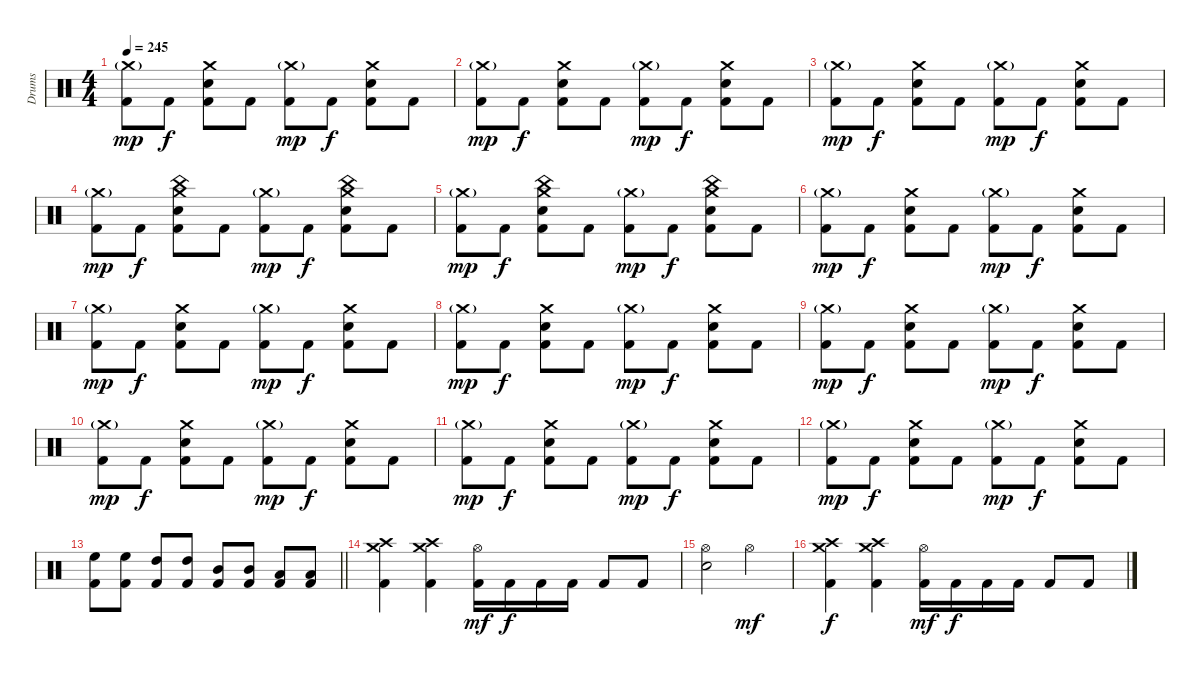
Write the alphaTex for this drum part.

\track ("Drums" "Drums") {instrument percussion}
\staff {score}
\articulation defaults
\ts (4 4)
\tempo 245
\clef neutral
\ks c
("Crash medium (hit)"{g} "Kick (hit) 2").8{dy mp} "Kick (hit) 2".8{dy f} ("Crash medium (hit)" "Electric Snare (hit)" "Kick (hit) 2").8 "Kick (hit) 2".8 ("Crash medium (hit)"{g} "Kick (hit) 2").8{dy mp} "Kick (hit) 2".8{dy f} ("Crash medium (hit)" "Electric Snare (hit)" "Kick (hit) 2").8 "Kick (hit) 2".8 |
("Crash medium (hit)"{g} "Kick (hit) 2").8{dy mp} "Kick (hit) 2".8{dy f} ("Crash medium (hit)" "Electric Snare (hit)" "Kick (hit) 2").8 "Kick (hit) 2".8 ("Crash medium (hit)"{g} "Kick (hit) 2").8{dy mp} "Kick (hit) 2".8{dy f} ("Crash medium (hit)" "Electric Snare (hit)" "Kick (hit) 2").8 "Kick (hit) 2".8 |
("Crash medium (hit)"{g} "Kick (hit) 2").8{dy mp} "Kick (hit) 2".8{dy f} ("Crash medium (hit)" "Electric Snare (hit)" "Kick (hit) 2").8 "Kick (hit) 2".8 ("Crash medium (hit)"{g} "Kick (hit) 2").8{dy mp} "Kick (hit) 2".8{dy f} ("Crash medium (hit)" "Electric Snare (hit)" "Kick (hit) 2").8 "Kick (hit) 2".8 |
("Crash medium (hit)"{g} "Kick (hit) 2").8{dy mp} "Kick (hit) 2".8{dy f} ("Crash medium (hit)" "China (hit)" "Electric Snare (hit)" "Kick (hit) 2").8 "Kick (hit) 2".8 ("Crash medium (hit)"{g} "Kick (hit) 2").8{dy mp} "Kick (hit) 2".8{dy f} ("Crash medium (hit)" "China (hit)" "Electric Snare (hit)" "Kick (hit) 2").8 "Kick (hit) 2".8 |
("Crash medium (hit)"{g} "Kick (hit) 2").8{dy mp} "Kick (hit) 2".8{dy f} ("Crash medium (hit)" "China (hit)" "Electric Snare (hit)" "Kick (hit) 2").8 "Kick (hit) 2".8 ("Crash medium (hit)"{g} "Kick (hit) 2").8{dy mp} "Kick (hit) 2".8{dy f} ("Crash medium (hit)" "China (hit)" "Electric Snare (hit)" "Kick (hit) 2").8 "Kick (hit) 2".8 |
("Crash medium (hit)"{g} "Kick (hit) 2").8{dy mp} "Kick (hit) 2".8{dy f} ("Crash medium (hit)" "Electric Snare (hit)" "Kick (hit) 2").8 "Kick (hit) 2".8 ("Crash medium (hit)"{g} "Kick (hit) 2").8{dy mp} "Kick (hit) 2".8{dy f} ("Crash medium (hit)" "Electric Snare (hit)" "Kick (hit) 2").8 "Kick (hit) 2".8 |
("Crash medium (hit)"{g} "Kick (hit) 2").8{dy mp} "Kick (hit) 2".8{dy f} ("Crash medium (hit)" "Electric Snare (hit)" "Kick (hit) 2").8 "Kick (hit) 2".8 ("Crash medium (hit)"{g} "Kick (hit) 2").8{dy mp} "Kick (hit) 2".8{dy f} ("Crash medium (hit)" "Electric Snare (hit)" "Kick (hit) 2").8 "Kick (hit) 2".8 |
("Crash medium (hit)"{g} "Kick (hit) 2").8{dy mp} "Kick (hit) 2".8{dy f} ("Crash medium (hit)" "Electric Snare (hit)" "Kick (hit) 2").8 "Kick (hit) 2".8 ("Crash medium (hit)"{g} "Kick (hit) 2").8{dy mp} "Kick (hit) 2".8{dy f} ("Crash medium (hit)" "Electric Snare (hit)" "Kick (hit) 2").8 "Kick (hit) 2".8 |
("Crash medium (hit)"{g} "Kick (hit) 2").8{dy mp} "Kick (hit) 2".8{dy f} ("Crash medium (hit)" "Electric Snare (hit)" "Kick (hit) 2").8 "Kick (hit) 2".8 ("Crash medium (hit)"{g} "Kick (hit) 2").8{dy mp} "Kick (hit) 2".8{dy f} ("Crash medium (hit)" "Electric Snare (hit)" "Kick (hit) 2").8 "Kick (hit) 2".8 |
("Crash medium (hit)"{g} "Kick (hit) 2").8{dy mp} "Kick (hit) 2".8{dy f} ("Crash medium (hit)" "Electric Snare (hit)" "Kick (hit) 2").8 "Kick (hit) 2".8 ("Crash medium (hit)"{g} "Kick (hit) 2").8{dy mp} "Kick (hit) 2".8{dy f} ("Crash medium (hit)" "Electric Snare (hit)" "Kick (hit) 2").8 "Kick (hit) 2".8 |
("Crash medium (hit)"{g} "Kick (hit) 2").8{dy mp} "Kick (hit) 2".8{dy f} ("Crash medium (hit)" "Electric Snare (hit)" "Kick (hit) 2").8 "Kick (hit) 2".8 ("Crash medium (hit)"{g} "Kick (hit) 2").8{dy mp} "Kick (hit) 2".8{dy f} ("Crash medium (hit)" "Electric Snare (hit)" "Kick (hit) 2").8 "Kick (hit) 2".8 |
("Crash medium (hit)"{g} "Kick (hit) 2").8{dy mp} "Kick (hit) 2".8{dy f} ("Crash medium (hit)" "Electric Snare (hit)" "Kick (hit) 2").8 "Kick (hit) 2".8 ("Crash medium (hit)"{g} "Kick (hit) 2").8{dy mp} "Kick (hit) 2".8{dy f} ("Crash medium (hit)" "Electric Snare (hit)" "Kick (hit) 2").8 "Kick (hit) 2".8 |
\barLineRight lightlight
("High Floor Tom (hit)" "Kick (hit) 2").8 ("High Floor Tom (hit)" "Kick (hit) 2").8 ("High Tom (hit)" "Kick (hit) 2").8 ("High Tom (hit)" "Kick (hit) 2").8 ("Mid Tom (hit)" "Kick (hit) 2").8 ("Mid Tom (hit)" "Kick (hit) 2").8 ("Low Tom (hit)" "Kick (hit) 2").8 ("Low Tom (hit)" "Kick (hit) 2").8 |
("Crash high (hit)" "Crash medium (hit)" "Kick (hit) 2").4 ("Crash high (hit)" "Crash medium (hit)" "Kick (hit) 2").4 ("Hi-Hat (open)" "Kick (hit) 2").16{dy mf} "Kick (hit) 2".16{dy f} "Kick (hit) 2".16 "Kick (hit) 2".16 "Kick (hit) 2".8 "Kick (hit) 2".8 |
("Hi-Hat (open)" "Electric Snare (hit)").2 "Hi-Hat (open)".2{dy mf} |
("Crash high (hit)" "Crash medium (hit)" "Kick (hit) 2").4{dy f} ("Crash high (hit)" "Crash medium (hit)" "Kick (hit) 2").4 ("Hi-Hat (open)" "Kick (hit) 2").16{dy mf} "Kick (hit) 2".16{dy f} "Kick (hit) 2".16 "Kick (hit) 2".16 "Kick (hit) 2".8 "Kick (hit) 2".8
